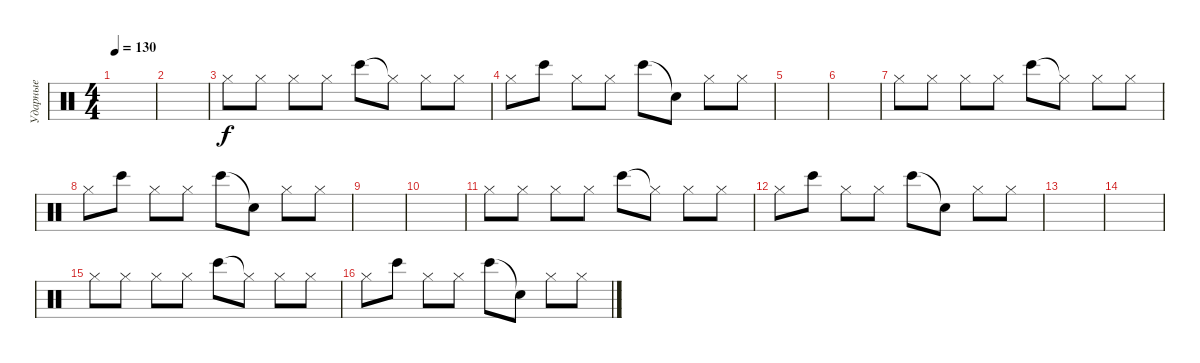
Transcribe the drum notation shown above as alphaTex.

\track ("Ударные" "Ударные") {instrument percussion}
\staff {score}
\articulation defaults
\ts (4 4)
\tempo 130
\clef neutral
\ks c
|
|
"Hi-Hat (closed)".8 "Hi-Hat (closed)".8 "Hi-Hat (closed)".8 "Hi-Hat (closed)".8 "Bongo High (hit)".8 "Hi-Hat (closed)"{t}.8 "Hi-Hat (closed)".8 "Hi-Hat (closed)".8 |
"Hi-Hat (closed)".8 "Bongo High (hit)".8 "Hi-Hat (closed)".8 "Hi-Hat (closed)".8 "Bongo High (hit)".8 "Snare (hit)"{t}.8 "Hi-Hat (closed)".8 "Hi-Hat (closed)".8 |
|
|
"Hi-Hat (closed)".8 "Hi-Hat (closed)".8 "Hi-Hat (closed)".8 "Hi-Hat (closed)".8 "Bongo High (hit)".8 "Hi-Hat (closed)"{t}.8 "Hi-Hat (closed)".8 "Hi-Hat (closed)".8 |
"Hi-Hat (closed)".8 "Bongo High (hit)".8 "Hi-Hat (closed)".8 "Hi-Hat (closed)".8 "Bongo High (hit)".8 "Snare (hit)"{t}.8 "Hi-Hat (closed)".8 "Hi-Hat (closed)".8 |
|
|
"Hi-Hat (closed)".8 "Hi-Hat (closed)".8 "Hi-Hat (closed)".8 "Hi-Hat (closed)".8 "Bongo High (hit)".8 "Hi-Hat (closed)"{t}.8 "Hi-Hat (closed)".8 "Hi-Hat (closed)".8 |
"Hi-Hat (closed)".8 "Bongo High (hit)".8 "Hi-Hat (closed)".8 "Hi-Hat (closed)".8 "Bongo High (hit)".8 "Snare (hit)"{t}.8 "Hi-Hat (closed)".8 "Hi-Hat (closed)".8 |
|
|
"Hi-Hat (closed)".8 "Hi-Hat (closed)".8 "Hi-Hat (closed)".8 "Hi-Hat (closed)".8 "Bongo High (hit)".8 "Hi-Hat (closed)"{t}.8 "Hi-Hat (closed)".8 "Hi-Hat (closed)".8 |
"Hi-Hat (closed)".8 "Bongo High (hit)".8 "Hi-Hat (closed)".8 "Hi-Hat (closed)".8 "Bongo High (hit)".8 "Snare (hit)"{t}.8 "Hi-Hat (closed)".8 "Hi-Hat (closed)".8
